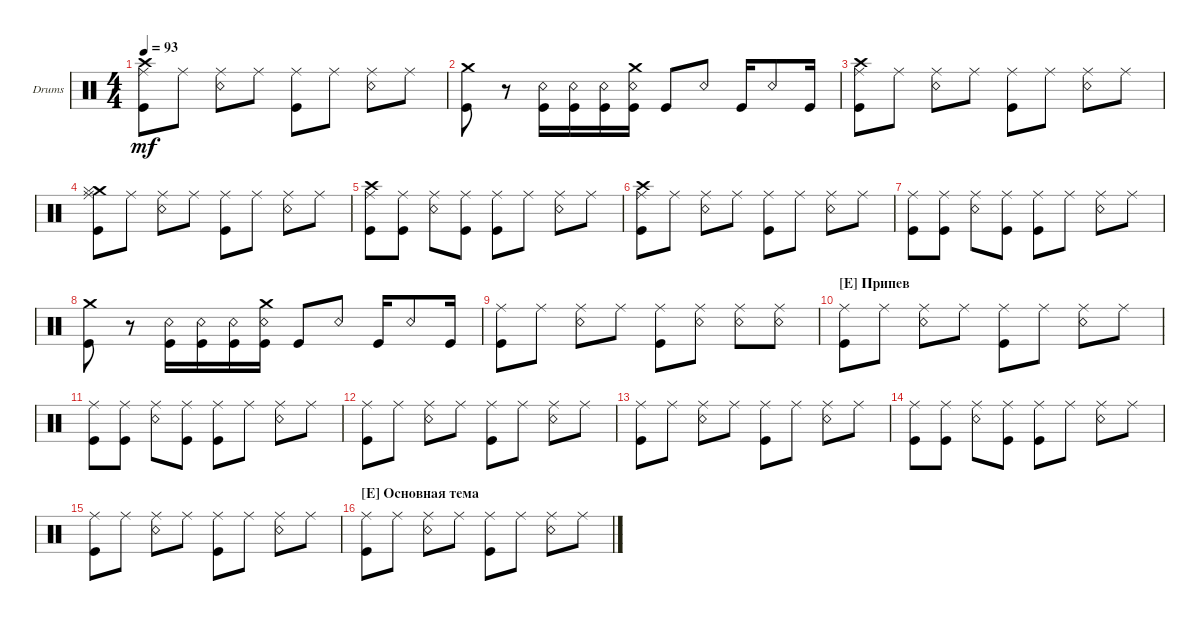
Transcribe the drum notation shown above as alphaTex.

\bracketExtendMode groupsimilarinstruments
\firstSystemTrackNameOrientation horizontal
\otherSystemsTrackNameOrientation horizontal
\track ("Drumkit" "Drums") {instrument percussion}
\staff {score}
\articulation defaults
\ts (4 4)
\tempo 93
\clef neutral
\ks c
("Kick (hit)" "Ride (middle)" "Crash high (hit)").8{dy mf} "Ride (middle)".8 ("Ride (middle)" "Snare (rim shot)").8 "Ride (middle)".8 ("Ride (middle)" "Kick (hit)").8 "Ride (middle)".8 ("Ride (middle)" "Snare (rim shot)").8 "Ride (middle)".8 |
("Kick (hit)" "Crash medium (hit)").8 r.8 ("Kick (hit)" "Snare (rim shot)").16 ("Kick (hit)" "Snare (rim shot)").16 ("Kick (hit)" "Snare (rim shot)").16 ("Crash medium (hit)" "Snare (rim shot)" "Kick (hit)").16 "Kick (hit)".8 "Snare (rim shot)".8 "Kick (hit)".16 "Snare (rim shot)".8 "Kick (hit)".16 |
("Kick (hit)" "Ride (middle)" "Crash high (hit)").8 "Ride (middle)".8 ("Ride (middle)" "Snare (rim shot)").8 "Ride (middle)".8 ("Ride (middle)" "Kick (hit)").8 "Ride (middle)".8 ("Ride (middle)" "Snare (rim shot)").8 "Ride (middle)".8 |
("Kick (hit)" "Ride (middle)" "Crash medium (hit)" "Hi-Hat (closed)").8 "Ride (middle)".8 ("Ride (middle)" "Snare (rim shot)").8 "Ride (middle)".8 ("Ride (middle)" "Kick (hit)").8 "Ride (middle)".8 ("Ride (middle)" "Snare (rim shot)").8 "Ride (middle)".8 |
("Kick (hit)" "Ride (middle)" "Crash high (hit)").8 ("Kick (hit)" "Ride (middle)").8 ("Snare (rim shot)" "Ride (middle)").8 ("Kick (hit)" "Ride (middle)").8 ("Ride (middle)" "Kick (hit)").8 "Ride (middle)".8 ("Ride (middle)" "Snare (rim shot)").8 "Ride (middle)".8 |
("Kick (hit)" "Ride (middle)" "Crash high (hit)").8 "Ride (middle)".8 ("Ride (middle)" "Snare (rim shot)").8 "Ride (middle)".8 ("Ride (middle)" "Kick (hit)").8 "Ride (middle)".8 ("Ride (middle)" "Snare (rim shot)").8 "Ride (middle)".8 |
("Kick (hit)" "Ride (middle)").8 ("Kick (hit)" "Ride (middle)").8 ("Snare (rim shot)" "Ride (middle)").8 ("Kick (hit)" "Ride (middle)").8 ("Ride (middle)" "Kick (hit)").8 "Ride (middle)".8 ("Ride (middle)" "Snare (rim shot)").8 "Ride (middle)".8 |
("Kick (hit)" "Crash medium (hit)").8 r.8 ("Kick (hit)" "Snare (rim shot)").16 ("Kick (hit)" "Snare (rim shot)").16 ("Kick (hit)" "Snare (rim shot)").16 ("Crash medium (hit)" "Snare (rim shot)" "Kick (hit)").16 "Kick (hit)".8 "Snare (rim shot)".8 "Kick (hit)".16 "Snare (rim shot)".8 "Kick (hit)".16 |
("Kick (hit)" "Ride (middle)").8 "Ride (middle)".8 ("Ride (middle)" "Snare (rim shot)").8 "Ride (middle)".8 ("Ride (middle)" "Kick (hit)").8 ("Ride (middle)" "Snare (rim shot)").8 ("Ride (middle)" "Snare (rim shot)").8 ("Ride (middle)" "Snare (rim shot)").8 |
\section ("E" "Припев")
("Kick (hit)" "Ride (middle)").8 "Ride (middle)".8 ("Ride (middle)" "Snare (rim shot)").8 "Ride (middle)".8 ("Ride (middle)" "Kick (hit)").8 "Ride (middle)".8 ("Ride (middle)" "Snare (rim shot)").8 "Ride (middle)".8 |
("Kick (hit)" "Ride (middle)").8 ("Kick (hit)" "Ride (middle)").8 ("Snare (rim shot)" "Ride (middle)").8 ("Kick (hit)" "Ride (middle)").8 ("Ride (middle)" "Kick (hit)").8 "Ride (middle)".8 ("Ride (middle)" "Snare (rim shot)").8 "Ride (middle)".8 |
("Kick (hit)" "Ride (middle)").8 "Ride (middle)".8 ("Ride (middle)" "Snare (rim shot)").8 "Ride (middle)".8 ("Ride (middle)" "Kick (hit)").8 "Ride (middle)".8 ("Ride (middle)" "Snare (rim shot)").8 "Ride (middle)".8 |
("Kick (hit)" "Ride (middle)").8 "Ride (middle)".8 ("Ride (middle)" "Snare (rim shot)").8 "Ride (middle)".8 ("Ride (middle)" "Kick (hit)").8 "Ride (middle)".8 ("Ride (middle)" "Snare (rim shot)").8 "Ride (middle)".8 |
("Kick (hit)" "Ride (middle)").8 ("Kick (hit)" "Ride (middle)").8 ("Snare (rim shot)" "Ride (middle)").8 ("Kick (hit)" "Ride (middle)").8 ("Ride (middle)" "Kick (hit)").8 "Ride (middle)".8 ("Ride (middle)" "Snare (rim shot)").8 "Ride (middle)".8 |
("Kick (hit)" "Ride (middle)").8 "Ride (middle)".8 ("Ride (middle)" "Snare (rim shot)").8 "Ride (middle)".8 ("Ride (middle)" "Kick (hit)").8 "Ride (middle)".8 ("Ride (middle)" "Snare (rim shot)").8 "Ride (middle)".8 |
\section ("E" "Основная тема")
("Kick (hit)" "Ride (middle)").8 "Ride (middle)".8 ("Ride (middle)" "Snare (rim shot)").8 "Ride (middle)".8 ("Ride (middle)" "Kick (hit)").8 "Ride (middle)".8 ("Ride (middle)" "Snare (rim shot)").8 "Ride (middle)".8
